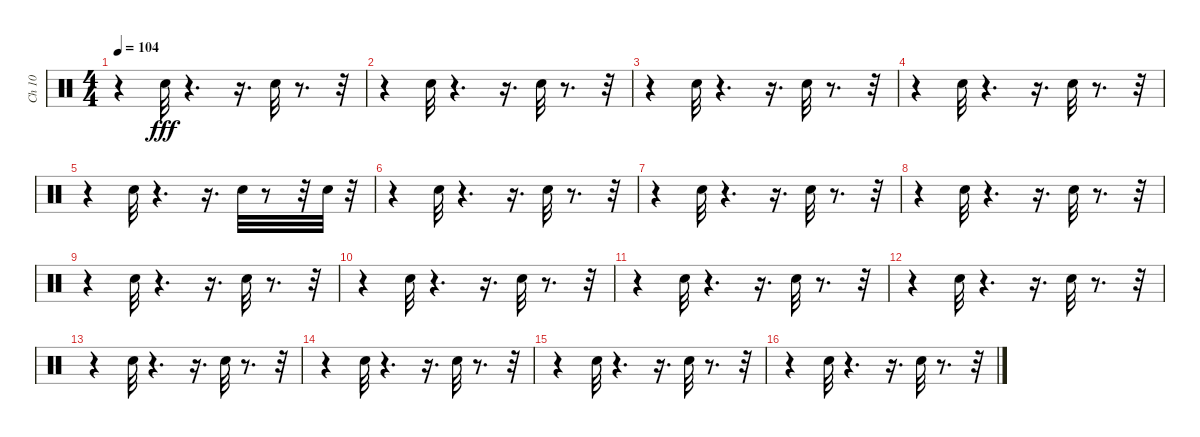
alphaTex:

\track ("Ch 10   " "Ch 10   ") {instrument percussion}
\staff {score}
\articulation defaults
\ts (4 4)
\tempo 104
\clef neutral
\ks c
r.4{dy fff} "Snare (hit) 2".32 r.4{d} r.16{d} "Snare (hit) 2".32 r.8{d} r.32 |
r.4 "Snare (hit) 2".32 r.4{d} r.16{d} "Snare (hit) 2".32 r.8{d} r.32 |
r.4 "Snare (hit) 2".32 r.4{d} r.16{d} "Snare (hit) 2".32 r.8{d} r.32 |
r.4 "Snare (hit) 2".32 r.4{d} r.16{d} "Snare (hit) 2".32 r.8{d} r.32 |
r.4 "Snare (hit) 2".32 r.4{d} r.16{d} "Snare (hit) 2".32 r.8 r.32 "Snare (hit) 2".32 r.32 |
r.4 "Snare (hit) 2".32 r.4{d} r.16{d} "Snare (hit) 2".32 r.8{d} r.32 |
r.4 "Snare (hit) 2".32 r.4{d} r.16{d} "Snare (hit) 2".32 r.8{d} r.32 |
r.4 "Snare (hit) 2".32 r.4{d} r.16{d} "Snare (hit) 2".32 r.8{d} r.32 |
r.4 "Snare (hit) 2".32 r.4{d} r.16{d} "Snare (hit) 2".32 r.8{d} r.32 |
r.4 "Snare (hit) 2".32 r.4{d} r.16{d} "Snare (hit) 2".32 r.8{d} r.32 |
r.4 "Snare (hit) 2".32 r.4{d} r.16{d} "Snare (hit) 2".32 r.8{d} r.32 |
r.4 "Snare (hit) 2".32 r.4{d} r.16{d} "Snare (hit) 2".32 r.8{d} r.32 |
r.4 "Snare (hit) 2".32 r.4{d} r.16{d} "Snare (hit) 2".32 r.8{d} r.32 |
r.4 "Snare (hit) 2".32 r.4{d} r.16{d} "Snare (hit) 2".32 r.8{d} r.32 |
r.4 "Snare (hit) 2".32 r.4{d} r.16{d} "Snare (hit) 2".32 r.8{d} r.32 |
r.4 "Snare (hit) 2".32 r.4{d} r.16{d} "Snare (hit) 2".32 r.8{d} r.32
